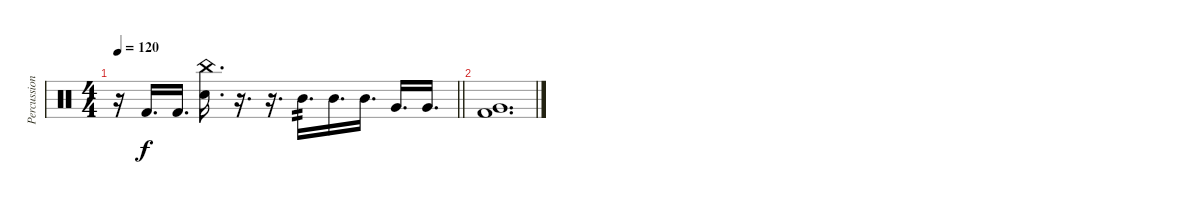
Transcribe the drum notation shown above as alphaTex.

\track ("Percussion" "Percussion") {instrument percussion}
\staff
\articulation defaults
\ts (4 4)
\tempo 120
\clef neutral
\barLineRight lightlight
\ks c
r.16{dy f} "Kick (hit) 2".16{d} "Kick (hit) 2".16{d} ("China (hit)" "Electric Snare (hit)").16{d} r.16{d} r.16{d} "Mid Tom (hit)".16{d tp 2} "Mid Tom (hit)".16{d} "Mid Tom (hit)".16{d} "Very Low Tom (hit)".16{d} "Very Low Tom (hit)".16{d} |
("Very Low Tom (hit)" "Kick (hit) 2").1{d}
